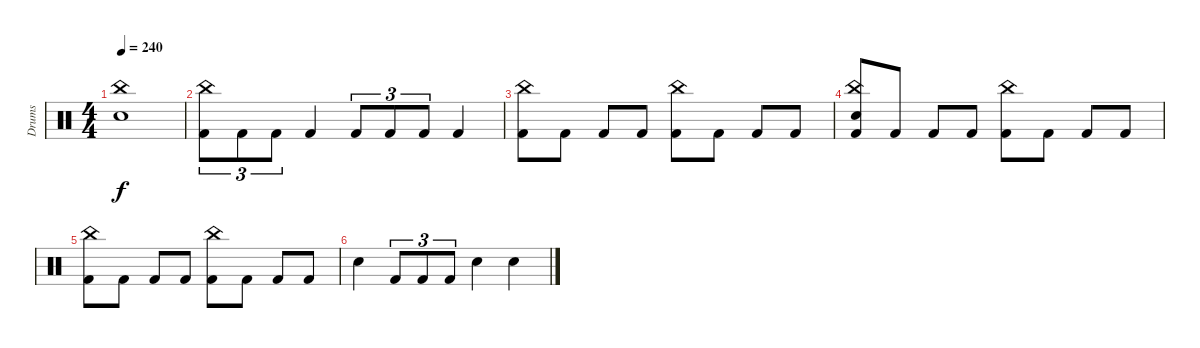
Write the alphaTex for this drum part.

\track ("Drums" "Drums") {instrument percussion}
\staff {score}
\articulation defaults
\ts (4 4)
\tempo 240
\clef neutral
\ks c
("Snare (hit) 2" "China (hit)").1{dy f} |
("China (hit)" "Kick (hit) 2").8{tu (3 2)} "Kick (hit) 2".8{tu (3 2)} "Kick (hit) 2".8{tu (3 2)} "Kick (hit) 2".4 "Kick (hit) 2".8{tu (3 2)} "Kick (hit) 2".8{tu (3 2)} "Kick (hit) 2".8{tu (3 2)} "Kick (hit) 2".4 |
("China (hit)" "Kick (hit) 2").8 "Kick (hit) 2".8 "Kick (hit) 2".8 "Kick (hit) 2".8 ("China (hit)" "Kick (hit) 2").8 "Kick (hit) 2".8 "Kick (hit) 2".8 "Kick (hit) 2".8 |
("Snare (hit) 2" "China (hit)" "Kick (hit) 2").8 "Kick (hit) 2".8 "Kick (hit) 2".8 "Kick (hit) 2".8 ("China (hit)" "Kick (hit) 2").8 "Kick (hit) 2".8 "Kick (hit) 2".8 "Kick (hit) 2".8 |
("China (hit)" "Kick (hit) 2").8 "Kick (hit) 2".8 "Kick (hit) 2".8 "Kick (hit) 2".8 ("China (hit)" "Kick (hit) 2").8 "Kick (hit) 2".8 "Kick (hit) 2".8 "Kick (hit) 2".8 |
"Snare (hit) 2".4 "Kick (hit) 2".8{tu (3 2)} "Kick (hit) 2".8{tu (3 2)} "Kick (hit) 2".8{tu (3 2)} "Snare (hit) 2".4 "Snare (hit) 2".4
